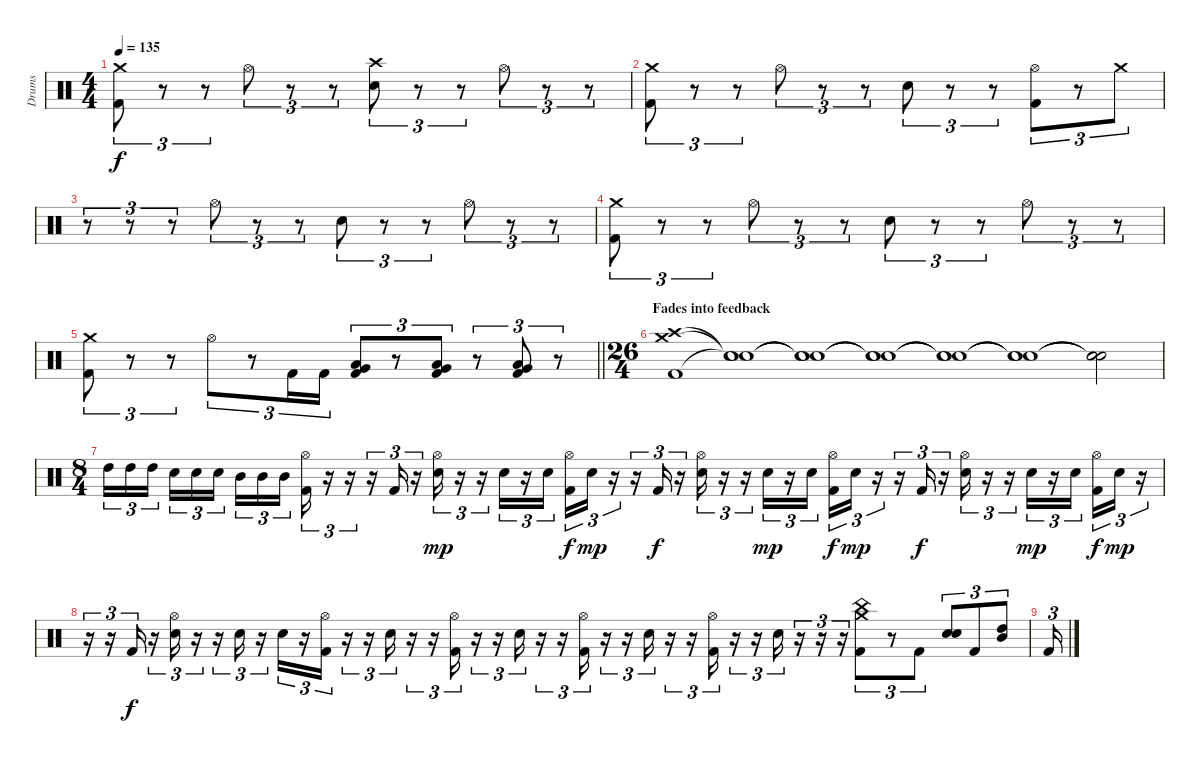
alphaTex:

\track ("Drums" "Drums") {instrument percussion}
\staff {score}
\articulation defaults
\ts (4 4)
\tempo 135
\clef neutral
\ks c
("Crash medium (hit)" "Kick (hit) 2").8{tu (3 2) dy f} r.8{tu (3 2)} r.8{tu (3 2)} "Hi-Hat (open)".8{tu (3 2)} r.8{tu (3 2)} r.8{tu (3 2)} ("Crash high (hit)" "Electric Snare (hit)").8{tu (3 2)} r.8{tu (3 2)} r.8{tu (3 2)} "Hi-Hat (open)".8{tu (3 2)} r.8{tu (3 2)} r.8{tu (3 2)} |
("Crash medium (hit)" "Kick (hit) 2").8{tu (3 2)} r.8{tu (3 2)} r.8{tu (3 2)} "Hi-Hat (open)".8{tu (3 2)} r.8{tu (3 2)} r.8{tu (3 2)} "Electric Snare (hit)".8{tu (3 2)} r.8{tu (3 2)} r.8{tu (3 2)} ("Hi-Hat (open)" "Kick (hit) 2").8{tu (3 2)} r.8{tu (3 2)} "Crash medium (hit)".8{tu (3 2)} |
r.8{tu (3 2)} r.8{tu (3 2)} r.8{tu (3 2)} "Hi-Hat (open)".8{tu (3 2)} r.8{tu (3 2)} r.8{tu (3 2)} "Electric Snare (hit)".8{tu (3 2)} r.8{tu (3 2)} r.8{tu (3 2)} "Hi-Hat (open)".8{tu (3 2)} r.8{tu (3 2)} r.8{tu (3 2)} |
("Crash medium (hit)" "Kick (hit) 2").8{tu (3 2)} r.8{tu (3 2)} r.8{tu (3 2)} "Hi-Hat (open)".8{tu (3 2)} r.8{tu (3 2)} r.8{tu (3 2)} "Electric Snare (hit)".8{tu (3 2)} r.8{tu (3 2)} r.8{tu (3 2)} "Hi-Hat (open)".8{tu (3 2)} r.8{tu (3 2)} r.8{tu (3 2)} |
\barLineRight lightlight
("Crash medium (hit)" "Kick (hit) 2").8{tu (3 2)} r.8{tu (3 2)} r.8{tu (3 2)} "Hi-Hat (open)".8{tu (3 2)} r.8{tu (3 2)} "Kick (hit) 2".16{tu (3 2)} "Kick (hit) 2".16{tu (3 2)} ("Low Floor Tom (hit)" "Very Low Tom (hit)" "Kick (hit) 2").8{tu (3 2)} r.8{tu (3 2)} ("Low Floor Tom (hit)" "Very Low Tom (hit)" "Kick (hit) 2").8{tu (3 2)} r.8{tu (3 2)} ("Low Floor Tom (hit)" "Very Low Tom (hit)" "Kick (hit) 2").8{tu (3 2)} r.8{tu (3 2)} |
\ts (26 4)
\section ("" "Fades into feedback")
("Crash medium (hit)" "Crash high (hit)" "Kick (hit) 2").1 ("Snare (hit)"{t} "Snare (hit)"{t} "Snare (hit)"{t}).1 ("Snare (hit)"{t} "Snare (hit)"{t} "Snare (hit)"{t}).1 ("Snare (hit)"{t} "Snare (hit)"{t} "Snare (hit)"{t}).1 ("Snare (hit)"{t} "Snare (hit)"{t} "Snare (hit)"{t}).1 ("Snare (hit)"{t} "Snare (hit)"{t} "Snare (hit)"{t}).1 ("Snare (hit)"{t} "Snare (hit)"{t} "Snare (hit)"{t}).2 |
\ts (8 4)
"High Tom (hit)".16{tu (3 2)} "High Tom (hit)".16{tu (3 2)} "High Tom (hit)".16{tu (3 2) beam splitsecondary} "Electric Snare (hit)".16{tu (3 2)} "Electric Snare (hit)".16{tu (3 2)} "Electric Snare (hit)".16{tu (3 2)} "Mid Tom (hit)".16{tu (3 2)} "Mid Tom (hit)".16{tu (3 2)} "Mid Tom (hit)".16{tu (3 2) beam splitsecondary} ("Hi-Hat (open)" "Kick (hit) 2").16{tu (3 2)} r.16{tu (3 2)} r.16{tu (3 2)} r.16{tu (3 2)} "Kick (hit) 2".16{tu (3 2)} r.16{tu (3 2)} ("Hi-Hat (open)" "Electric Snare (hit)").16{tu (3 2) dy mp} r.16{tu (3 2)} r.16{tu (3 2)} "Electric Snare (hit)".16{tu (3 2)} r.16{tu (3 2)} "Electric Snare (hit)".16{tu (3 2) beam splitsecondary} ("Hi-Hat (open)" "Kick (hit) 2").16{tu (3 2) dy f} "Electric Snare (hit)".16{tu (3 2) dy mp} r.16{tu (3 2)} r.16{tu (3 2)} "Kick (hit) 2".16{tu (3 2) dy f} r.16{tu (3 2)} ("Hi-Hat (open)" "Electric Snare (hit)").16{tu (3 2)} r.16{tu (3 2)} r.16{tu (3 2)} "Electric Snare (hit)".16{tu (3 2) dy mp} r.16{tu (3 2)} "Electric Snare (hit)".16{tu (3 2) beam splitsecondary} ("Hi-Hat (open)" "Kick (hit) 2").16{tu (3 2) dy f} "Electric Snare (hit)".16{tu (3 2) dy mp} r.16{tu (3 2)} r.16{tu (3 2)} "Kick (hit) 2".16{tu (3 2) dy f} r.16{tu (3 2)} ("Hi-Hat (open)" "Electric Snare (hit)").16{tu (3 2)} r.16{tu (3 2)} r.16{tu (3 2)} "Electric Snare (hit)".16{tu (3 2) dy mp} r.16{tu (3 2)} "Electric Snare (hit)".16{tu (3 2) beam splitsecondary} ("Hi-Hat (open)" "Kick (hit) 2").16{tu (3 2) dy f} "Electric Snare (hit)".16{tu (3 2) dy mp} r.16{tu (3 2)} |
r.16{tu (3 2)} r.16{tu (3 2)} "Kick (hit) 2".16{tu (3 2) dy f} r.16{tu (3 2)} ("Hi-Hat (open)" "Electric Snare (hit)").16{tu (3 2)} r.16{tu (3 2)} r.16{tu (3 2)} "Electric Snare (hit)".16{tu (3 2)} r.16{tu (3 2)} "Electric Snare (hit)".16{tu (3 2)} r.16{tu (3 2)} ("Hi-Hat (open)" "Kick (hit) 2").16{tu (3 2)} r.16{tu (3 2)} r.16{tu (3 2)} "Electric Snare (hit)".16{tu (3 2)} r.16{tu (3 2)} r.16{tu (3 2)} ("Hi-Hat (open)" "Kick (hit) 2").16{tu (3 2)} r.16{tu (3 2)} r.16{tu (3 2)} "Electric Snare (hit)".16{tu (3 2)} r.16{tu (3 2)} r.16{tu (3 2)} ("Hi-Hat (open)" "Kick (hit) 2").16{tu (3 2)} r.16{tu (3 2)} r.16{tu (3 2)} "Electric Snare (hit)".16{tu (3 2)} r.16{tu (3 2)} r.16{tu (3 2)} ("Hi-Hat (open)" "Kick (hit) 2").16{tu (3 2)} r.16{tu (3 2)} r.16{tu (3 2)} "Electric Snare (hit)".16{tu (3 2)} r.16{tu (3 2)} r.16{tu (3 2)} r.16{tu (3 2)} ("Crash medium (hit)" "China (hit)" "Kick (hit) 2").8{tu (3 2)} r.8{tu (3 2)} "Kick (hit) 2".8{tu (3 2)} ("Electric Snare (hit)" "Electric Snare (hit)").8{tu (3 2)} "Kick (hit) 2".8{tu (3 2)} ("High Tom (hit)" "Mid Tom (hit)").8{tu (3 2)} |
"Kick (hit) 2".16{tu (3 2)}
